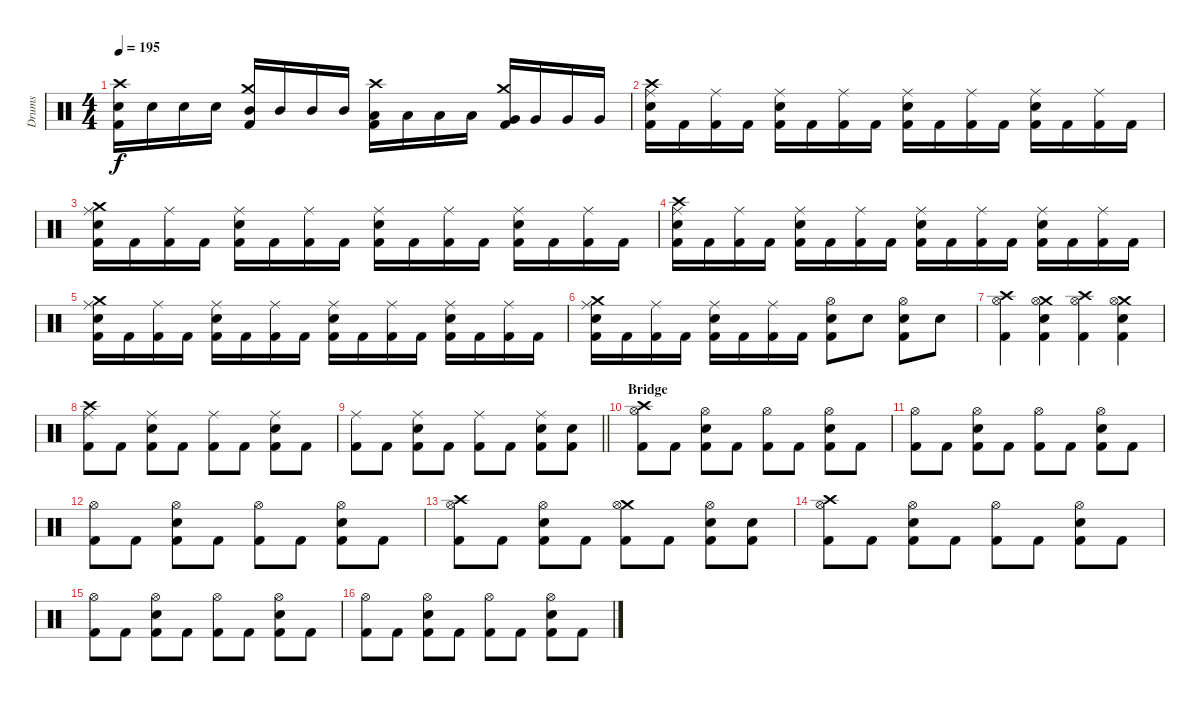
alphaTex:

\track ("Drums" "Drums") {instrument percussion}
\staff {score}
\articulation defaults
\ts (4 4)
\tempo 195
\clef neutral
\ks c
("Crash high (hit)" "Snare (hit) 2" "Kick (hit) 2").16{dy f} "Snare (hit) 2".16 "Snare (hit) 2".16 "Snare (hit) 2".16 ("Crash medium (hit)" "Mid Tom (hit)" "Kick (hit) 2").16 "Mid Tom (hit)".16 "Mid Tom (hit)".16 "Mid Tom (hit)".16 ("Crash high (hit)" "Low Tom (hit)" "Kick (hit) 2").16 "Low Tom (hit)".16 "Low Tom (hit)".16 "Low Tom (hit)".16 ("Crash medium (hit)" "Very Low Tom (hit)" "Kick (hit) 2").16 "Very Low Tom (hit)".16 "Very Low Tom (hit)".16 "Very Low Tom (hit)".16 |
("Crash high (hit)" "Ride (middle)" "Snare (hit) 2" "Kick (hit) 2").16 "Kick (hit) 2".16 ("Ride (middle)" "Kick (hit) 2").16 "Kick (hit) 2".16 ("Ride (middle)" "Snare (hit) 2" "Kick (hit) 2").16 "Kick (hit) 2".16 ("Ride (middle)" "Kick (hit) 2").16 "Kick (hit) 2".16 ("Ride (middle)" "Snare (hit) 2" "Kick (hit) 2").16 "Kick (hit) 2".16 ("Ride (middle)" "Kick (hit) 2").16 "Kick (hit) 2".16 ("Ride (middle)" "Snare (hit) 2" "Kick (hit) 2").16 "Kick (hit) 2".16 ("Ride (middle)" "Kick (hit) 2").16 "Kick (hit) 2".16 |
("Crash medium (hit)" "Ride (middle)" "Snare (hit) 2" "Kick (hit) 2").16 "Kick (hit) 2".16 ("Ride (middle)" "Kick (hit) 2").16 "Kick (hit) 2".16 ("Ride (middle)" "Snare (hit) 2" "Kick (hit) 2").16 "Kick (hit) 2".16 ("Ride (middle)" "Kick (hit) 2").16 "Kick (hit) 2".16 ("Ride (middle)" "Snare (hit) 2" "Kick (hit) 2").16 "Kick (hit) 2".16 ("Ride (middle)" "Kick (hit) 2").16 "Kick (hit) 2".16 ("Ride (middle)" "Snare (hit) 2" "Kick (hit) 2").16 "Kick (hit) 2".16 ("Ride (middle)" "Kick (hit) 2").16 "Kick (hit) 2".16 |
("Crash high (hit)" "Ride (middle)" "Snare (hit) 2" "Kick (hit) 2").16 "Kick (hit) 2".16 ("Ride (middle)" "Kick (hit) 2").16 "Kick (hit) 2".16 ("Ride (middle)" "Snare (hit) 2" "Kick (hit) 2").16 "Kick (hit) 2".16 ("Ride (middle)" "Kick (hit) 2").16 "Kick (hit) 2".16 ("Ride (middle)" "Snare (hit) 2" "Kick (hit) 2").16 "Kick (hit) 2".16 ("Ride (middle)" "Kick (hit) 2").16 "Kick (hit) 2".16 ("Ride (middle)" "Snare (hit) 2" "Kick (hit) 2").16 "Kick (hit) 2".16 ("Ride (middle)" "Kick (hit) 2").16 "Kick (hit) 2".16 |
("Crash medium (hit)" "Ride (middle)" "Snare (hit) 2" "Kick (hit) 2").16 "Kick (hit) 2".16 ("Ride (middle)" "Kick (hit) 2").16 "Kick (hit) 2".16 ("Ride (middle)" "Snare (hit) 2" "Kick (hit) 2").16 "Kick (hit) 2".16 ("Ride (middle)" "Kick (hit) 2").16 "Kick (hit) 2".16 ("Ride (middle)" "Snare (hit) 2" "Kick (hit) 2").16 "Kick (hit) 2".16 ("Ride (middle)" "Kick (hit) 2").16 "Kick (hit) 2".16 ("Ride (middle)" "Snare (hit) 2" "Kick (hit) 2").16 "Kick (hit) 2".16 ("Ride (middle)" "Kick (hit) 2").16 "Kick (hit) 2".16 |
("Crash medium (hit)" "Ride (middle)" "Snare (hit) 2" "Kick (hit) 2").16 "Kick (hit) 2".16 ("Ride (middle)" "Kick (hit) 2").16 "Kick (hit) 2".16 ("Ride (middle)" "Snare (hit) 2" "Kick (hit) 2").16 "Kick (hit) 2".16 ("Ride (middle)" "Kick (hit) 2").16 "Kick (hit) 2".16 ("Hi-Hat (open)" "Snare (hit) 2" "Kick (hit) 2").8 "Snare (hit) 2".8 ("Hi-Hat (open)" "Snare (hit) 2" "Kick (hit) 2").8 "Snare (hit) 2".8 |
("Crash high (hit)" "Hi-Hat (open)" "Kick (hit) 2").4 ("Crash medium (hit)" "Hi-Hat (open)" "Snare (hit) 2" "Kick (hit) 2").4 ("Crash high (hit)" "Hi-Hat (open)" "Kick (hit) 2").4 ("Crash medium (hit)" "Hi-Hat (open)" "Snare (hit) 2" "Kick (hit) 2").4 |
("Crash high (hit)" "Ride (middle)" "Kick (hit) 2").8 "Kick (hit) 2".8 ("Ride (middle)" "Snare (hit) 2" "Kick (hit) 2").8 "Kick (hit) 2".8 ("Ride (middle)" "Kick (hit) 2").8 "Kick (hit) 2".8 ("Ride (middle)" "Snare (hit) 2" "Kick (hit) 2").8 "Kick (hit) 2".8 |
\barLineRight lightlight
("Ride (middle)" "Kick (hit) 2").8 "Kick (hit) 2".8 ("Ride (middle)" "Snare (hit) 2" "Kick (hit) 2").8 "Kick (hit) 2".8 ("Ride (middle)" "Kick (hit) 2").8 "Kick (hit) 2".8 ("Ride (middle)" "Snare (hit) 2" "Kick (hit) 2").8 ("Snare (hit) 2" "Kick (hit) 2").8 |
\section ("" "Bridge")
("Crash high (hit)" "Hi-Hat (open)" "Kick (hit) 2").8 "Kick (hit) 2".8 ("Hi-Hat (open)" "Snare (hit) 2" "Kick (hit) 2").8 "Kick (hit) 2".8 ("Hi-Hat (open)" "Kick (hit) 2").8 "Kick (hit) 2".8 ("Hi-Hat (open)" "Snare (hit) 2" "Kick (hit) 2").8 "Kick (hit) 2".8 |
("Hi-Hat (open)" "Kick (hit) 2").8 "Kick (hit) 2".8 ("Hi-Hat (open)" "Snare (hit) 2" "Kick (hit) 2").8 "Kick (hit) 2".8 ("Hi-Hat (open)" "Kick (hit) 2").8 "Kick (hit) 2".8 ("Hi-Hat (open)" "Snare (hit) 2" "Kick (hit) 2").8 "Kick (hit) 2".8 |
("Hi-Hat (open)" "Kick (hit) 2").8 "Kick (hit) 2".8 ("Hi-Hat (open)" "Snare (hit) 2" "Kick (hit) 2").8 "Kick (hit) 2".8 ("Hi-Hat (open)" "Kick (hit) 2").8 "Kick (hit) 2".8 ("Hi-Hat (open)" "Snare (hit) 2" "Kick (hit) 2").8 "Kick (hit) 2".8 |
("Crash high (hit)" "Hi-Hat (open)" "Kick (hit) 2").8 "Kick (hit) 2".8 ("Hi-Hat (open)" "Snare (hit) 2" "Kick (hit) 2").8 "Kick (hit) 2".8 ("Crash medium (hit)" "Hi-Hat (open)" "Kick (hit) 2").8 "Kick (hit) 2".8 ("Hi-Hat (open)" "Snare (hit) 2" "Kick (hit) 2").8 ("Snare (hit) 2" "Kick (hit) 2").8 |
("Crash high (hit)" "Hi-Hat (open)" "Kick (hit) 2").8 "Kick (hit) 2".8 ("Hi-Hat (open)" "Snare (hit) 2" "Kick (hit) 2").8 "Kick (hit) 2".8 ("Hi-Hat (open)" "Kick (hit) 2").8 "Kick (hit) 2".8 ("Hi-Hat (open)" "Snare (hit) 2" "Kick (hit) 2").8 "Kick (hit) 2".8 |
("Hi-Hat (open)" "Kick (hit) 2").8 "Kick (hit) 2".8 ("Hi-Hat (open)" "Snare (hit) 2" "Kick (hit) 2").8 "Kick (hit) 2".8 ("Hi-Hat (open)" "Kick (hit) 2").8 "Kick (hit) 2".8 ("Hi-Hat (open)" "Snare (hit) 2" "Kick (hit) 2").8 "Kick (hit) 2".8 |
("Hi-Hat (open)" "Kick (hit) 2").8 "Kick (hit) 2".8 ("Hi-Hat (open)" "Snare (hit) 2" "Kick (hit) 2").8 "Kick (hit) 2".8 ("Hi-Hat (open)" "Kick (hit) 2").8 "Kick (hit) 2".8 ("Hi-Hat (open)" "Snare (hit) 2" "Kick (hit) 2").8 "Kick (hit) 2".8
